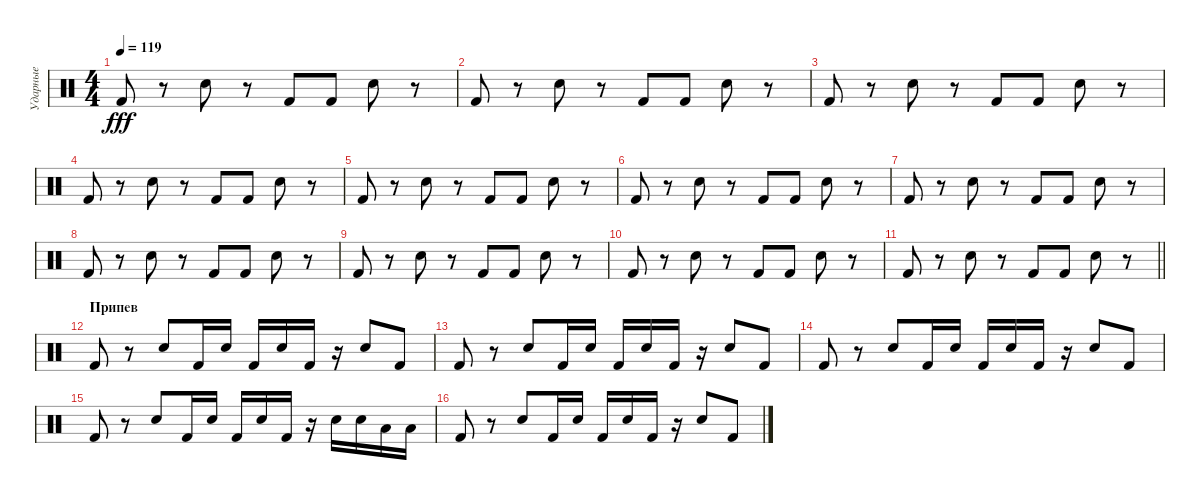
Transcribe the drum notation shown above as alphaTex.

\track ("Ударные" "Ударные") {instrument percussion}
\staff {score}
\articulation defaults
\ts (4 4)
\tempo 119
\clef neutral
\ks c "Kick (hit) 2".8{dy fff}
r.8 "Snare (hit) 2".8 r.8 "Kick (hit) 2".8 "Kick (hit) 2".8 "Snare (hit) 2".8 r.8 |
"Kick (hit) 2".8 r.8 "Snare (hit) 2".8 r.8 "Kick (hit) 2".8 "Kick (hit) 2".8 "Snare (hit) 2".8 r.8 |
"Kick (hit) 2".8 r.8 "Snare (hit) 2".8 r.8 "Kick (hit) 2".8 "Kick (hit) 2".8 "Snare (hit) 2".8 r.8 |
"Kick (hit) 2".8 r.8 "Snare (hit) 2".8 r.8 "Kick (hit) 2".8 "Kick (hit) 2".8 "Snare (hit) 2".8 r.8 |
"Kick (hit) 2".8 r.8 "Snare (hit) 2".8 r.8 "Kick (hit) 2".8 "Kick (hit) 2".8 "Snare (hit) 2".8 r.8 |
"Kick (hit) 2".8 r.8 "Snare (hit) 2".8 r.8 "Kick (hit) 2".8 "Kick (hit) 2".8 "Snare (hit) 2".8 r.8 |
"Kick (hit) 2".8 r.8 "Snare (hit) 2".8 r.8 "Kick (hit) 2".8 "Kick (hit) 2".8 "Snare (hit) 2".8 r.8 |
"Kick (hit) 2".8 r.8 "Snare (hit) 2".8 r.8 "Kick (hit) 2".8 "Kick (hit) 2".8 "Snare (hit) 2".8 r.8 |
"Kick (hit) 2".8 r.8 "Snare (hit) 2".8 r.8 "Kick (hit) 2".8 "Kick (hit) 2".8 "Snare (hit) 2".8 r.8 |
"Kick (hit) 2".8 r.8 "Snare (hit) 2".8 r.8 "Kick (hit) 2".8 "Kick (hit) 2".8 "Snare (hit) 2".8 r.8 |
\barLineRight lightlight "Kick (hit) 2".8
r.8 "Snare (hit) 2".8 r.8 "Kick (hit) 2".8 "Kick (hit) 2".8 "Snare (hit) 2".8 r.8 |
\section ("" "Припев")
"Kick (hit) 2".8 r.8 "Snare (hit) 2".8 "Kick (hit) 2".16 "Snare (hit) 2".16 "Kick (hit) 2".16 "Snare (hit) 2".16 "Kick (hit) 2".16 r.16 "Snare (hit) 2".8 "Kick (hit) 2".8 |
"Kick (hit) 2".8 r.8 "Snare (hit) 2".8 "Kick (hit) 2".16 "Snare (hit) 2".16 "Kick (hit) 2".16 "Snare (hit) 2".16 "Kick (hit) 2".16 r.16 "Snare (hit) 2".8 "Kick (hit) 2".8 |
"Kick (hit) 2".8 r.8 "Snare (hit) 2".8 "Kick (hit) 2".16 "Snare (hit) 2".16 "Kick (hit) 2".16 "Snare (hit) 2".16 "Kick (hit) 2".16 r.16 "Snare (hit) 2".8 "Kick (hit) 2".8 |
"Kick (hit) 2".8 r.8 "Snare (hit) 2".8 "Kick (hit) 2".16 "Snare (hit) 2".16 "Kick (hit) 2".16 "Snare (hit) 2".16 "Kick (hit) 2".16 r.16 "Snare (hit) 2".16 "Snare (hit) 2".16 "Low Tom (hit)".16 "Low Tom (hit)".16 |
"Kick (hit) 2".8 r.8 "Snare (hit) 2".8 "Kick (hit) 2".16 "Snare (hit) 2".16 "Kick (hit) 2".16 "Snare (hit) 2".16 "Kick (hit) 2".16 r.16 "Snare (hit) 2".8 "Kick (hit) 2".8
